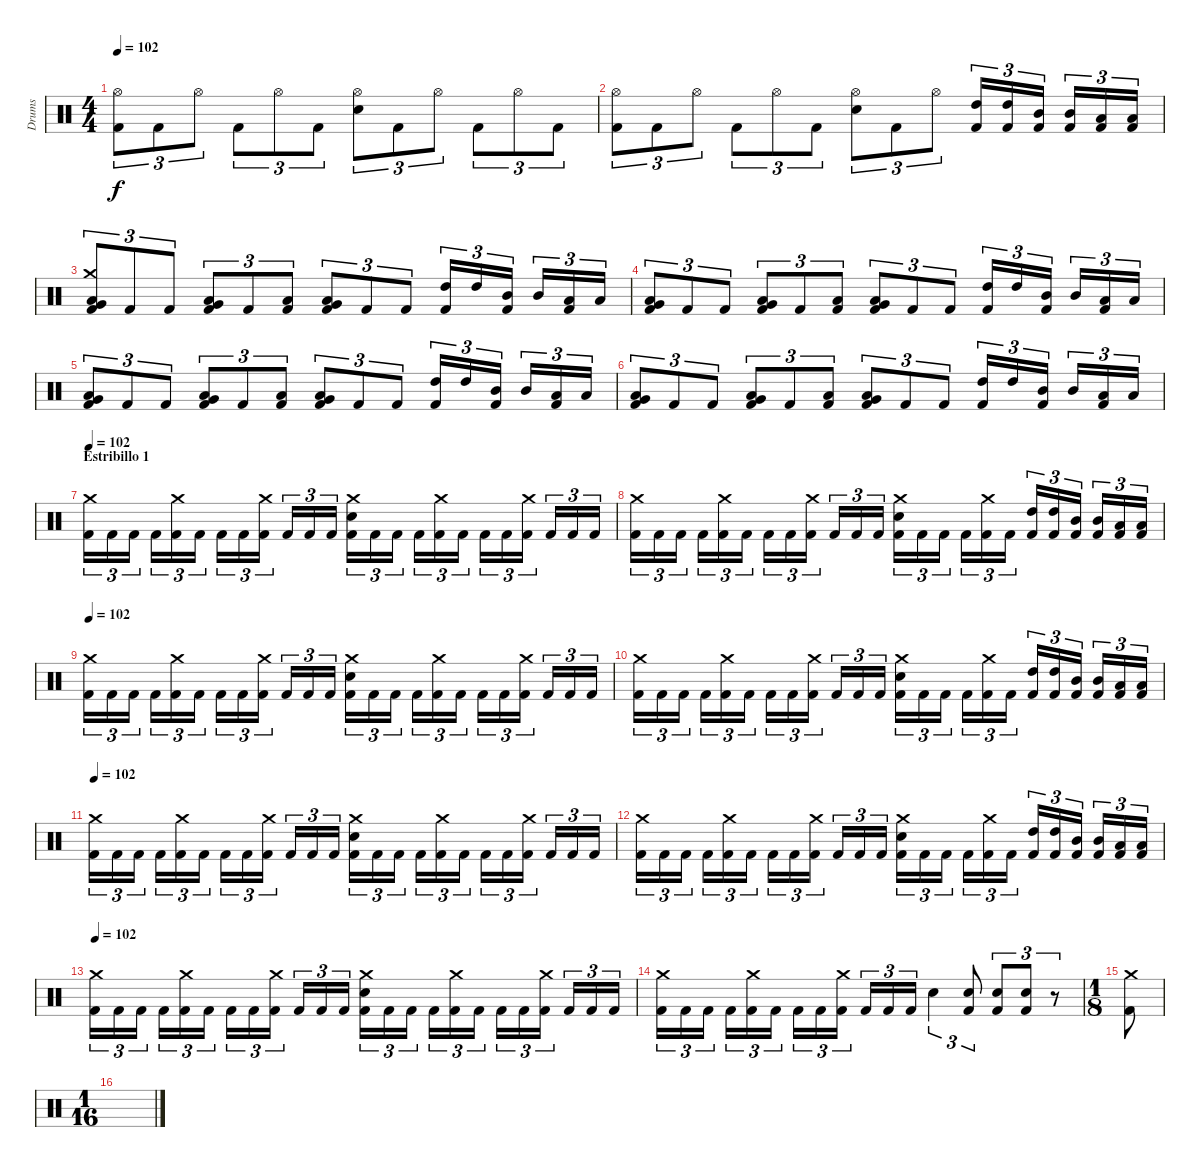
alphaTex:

\track ("Drums" "Drums") {instrument percussion}
\staff {score}
\articulation defaults
\ts (4 4)
\tempo 102
\clef neutral
\ks c
("Hi-Hat (open)" "Kick (hit) 2").8{tu (3 2) dy f} "Kick (hit) 2".8{tu (3 2)} "Hi-Hat (open)".8{tu (3 2)} "Kick (hit) 2".8{tu (3 2)} "Hi-Hat (open)".8{tu (3 2)} "Kick (hit) 2".8{tu (3 2)} ("Hi-Hat (open)" "Snare (hit) 2").8{tu (3 2)} "Kick (hit) 2".8{tu (3 2)} "Hi-Hat (open)".8{tu (3 2)} "Kick (hit) 2".8{tu (3 2)} "Hi-Hat (open)".8{tu (3 2)} "Kick (hit) 2".8{tu (3 2)} |
("Hi-Hat (open)" "Kick (hit) 2").8{tu (3 2)} "Kick (hit) 2".8{tu (3 2)} "Hi-Hat (open)".8{tu (3 2)} "Kick (hit) 2".8{tu (3 2)} "Hi-Hat (open)".8{tu (3 2)} "Kick (hit) 2".8{tu (3 2)} ("Hi-Hat (open)" "Snare (hit) 2").8{tu (3 2)} "Kick (hit) 2".8{tu (3 2)} "Hi-Hat (open)".8{tu (3 2)} ("High Tom (hit)" "Kick (hit) 2").16{tu (3 2)} ("High Tom (hit)" "Kick (hit) 2").16{tu (3 2)} ("Mid Tom (hit)" "Kick (hit) 2").16{tu (3 2)} ("Mid Tom (hit)" "Kick (hit) 2").16{tu (3 2)} ("Low Tom (hit)" "Kick (hit) 2").16{tu (3 2)} ("Low Tom (hit)" "Kick (hit) 2").16{tu (3 2)} |
("Crash medium (hit)" "Very Low Tom (hit)" "Low Floor Tom (hit)" "Kick (hit) 2").8{tu (3 2)} "Kick (hit) 2".8{tu (3 2)} "Kick (hit) 2".8{tu (3 2)} ("Very Low Tom (hit)" "Low Floor Tom (hit)" "Kick (hit) 2").8{tu (3 2)} "Kick (hit) 2".8{tu (3 2)} ("Low Floor Tom (hit)" "Kick (hit) 2").8{tu (3 2)} ("Very Low Tom (hit)" "Low Floor Tom (hit)" "Kick (hit) 2").8{tu (3 2)} "Kick (hit) 2".8{tu (3 2)} "Kick (hit) 2".8{tu (3 2)} ("High Tom (hit)" "Kick (hit) 2").16{tu (3 2)} "High Tom (hit)".16{tu (3 2)} ("Mid Tom (hit)" "Kick (hit) 2").16{tu (3 2)} "Mid Tom (hit)".16{tu (3 2)} ("Low Tom (hit)" "Kick (hit) 2").16{tu (3 2)} "Low Tom (hit)".16{tu (3 2)} |
("Very Low Tom (hit)" "Low Floor Tom (hit)" "Kick (hit) 2").8{tu (3 2)} "Kick (hit) 2".8{tu (3 2)} "Kick (hit) 2".8{tu (3 2)} ("Very Low Tom (hit)" "Low Floor Tom (hit)" "Kick (hit) 2").8{tu (3 2)} "Kick (hit) 2".8{tu (3 2)} ("Low Floor Tom (hit)" "Kick (hit) 2").8{tu (3 2)} ("Very Low Tom (hit)" "Low Floor Tom (hit)" "Kick (hit) 2").8{tu (3 2)} "Kick (hit) 2".8{tu (3 2)} "Kick (hit) 2".8{tu (3 2)} ("High Tom (hit)" "Kick (hit) 2").16{tu (3 2)} "High Tom (hit)".16{tu (3 2)} ("Mid Tom (hit)" "Kick (hit) 2").16{tu (3 2)} "Mid Tom (hit)".16{tu (3 2)} ("Low Tom (hit)" "Kick (hit) 2").16{tu (3 2)} "Low Tom (hit)".16{tu (3 2)} |
("Very Low Tom (hit)" "Low Floor Tom (hit)" "Kick (hit) 2").8{tu (3 2)} "Kick (hit) 2".8{tu (3 2)} "Kick (hit) 2".8{tu (3 2)} ("Very Low Tom (hit)" "Low Floor Tom (hit)" "Kick (hit) 2").8{tu (3 2)} "Kick (hit) 2".8{tu (3 2)} ("Low Floor Tom (hit)" "Kick (hit) 2").8{tu (3 2)} ("Very Low Tom (hit)" "Low Floor Tom (hit)" "Kick (hit) 2").8{tu (3 2)} "Kick (hit) 2".8{tu (3 2)} "Kick (hit) 2".8{tu (3 2)} ("High Tom (hit)" "Kick (hit) 2").16{tu (3 2)} "High Tom (hit)".16{tu (3 2)} ("Mid Tom (hit)" "Kick (hit) 2").16{tu (3 2)} "Mid Tom (hit)".16{tu (3 2)} ("Low Tom (hit)" "Kick (hit) 2").16{tu (3 2)} "Low Tom (hit)".16{tu (3 2)} |
("Very Low Tom (hit)" "Low Floor Tom (hit)" "Kick (hit) 2").8{tu (3 2)} "Kick (hit) 2".8{tu (3 2)} "Kick (hit) 2".8{tu (3 2)} ("Very Low Tom (hit)" "Low Floor Tom (hit)" "Kick (hit) 2").8{tu (3 2)} "Kick (hit) 2".8{tu (3 2)} ("Low Floor Tom (hit)" "Kick (hit) 2").8{tu (3 2)} ("Very Low Tom (hit)" "Low Floor Tom (hit)" "Kick (hit) 2").8{tu (3 2)} "Kick (hit) 2".8{tu (3 2)} "Kick (hit) 2".8{tu (3 2)} ("High Tom (hit)" "Kick (hit) 2").16{tu (3 2)} "High Tom (hit)".16{tu (3 2)} ("Mid Tom (hit)" "Kick (hit) 2").16{tu (3 2)} "Mid Tom (hit)".16{tu (3 2)} ("Low Tom (hit)" "Kick (hit) 2").16{tu (3 2)} "Low Tom (hit)".16{tu (3 2)} |
\section ("" "Estribillo 1")
\tempo 102
("Crash medium (hit)" "Kick (hit) 2").16{tu (3 2)} "Kick (hit) 2".16{tu (3 2)} "Kick (hit) 2".16{tu (3 2)} "Kick (hit) 2".16{tu (3 2)} ("Crash medium (hit)" "Kick (hit) 2").16{tu (3 2)} "Kick (hit) 2".16{tu (3 2)} "Kick (hit) 2".16{tu (3 2)} "Kick (hit) 2".16{tu (3 2)} ("Crash medium (hit)" "Kick (hit) 2").16{tu (3 2)} "Kick (hit) 2".16{tu (3 2)} "Kick (hit) 2".16{tu (3 2)} "Kick (hit) 2".16{tu (3 2)} ("Crash medium (hit)" "Snare (hit) 2" "Kick (hit) 2").16{tu (3 2)} "Kick (hit) 2".16{tu (3 2)} "Kick (hit) 2".16{tu (3 2)} "Kick (hit) 2".16{tu (3 2)} ("Crash medium (hit)" "Kick (hit) 2").16{tu (3 2)} "Kick (hit) 2".16{tu (3 2)} "Kick (hit) 2".16{tu (3 2)} "Kick (hit) 2".16{tu (3 2)} ("Crash medium (hit)" "Kick (hit) 2").16{tu (3 2)} "Kick (hit) 2".16{tu (3 2)} "Kick (hit) 2".16{tu (3 2)} "Kick (hit) 2".16{tu (3 2)} |
("Crash medium (hit)" "Kick (hit) 2").16{tu (3 2)} "Kick (hit) 2".16{tu (3 2)} "Kick (hit) 2".16{tu (3 2)} "Kick (hit) 2".16{tu (3 2)} ("Crash medium (hit)" "Kick (hit) 2").16{tu (3 2)} "Kick (hit) 2".16{tu (3 2)} "Kick (hit) 2".16{tu (3 2)} "Kick (hit) 2".16{tu (3 2)} ("Crash medium (hit)" "Kick (hit) 2").16{tu (3 2)} "Kick (hit) 2".16{tu (3 2)} "Kick (hit) 2".16{tu (3 2)} "Kick (hit) 2".16{tu (3 2)} ("Crash medium (hit)" "Snare (hit) 2" "Kick (hit) 2").16{tu (3 2)} "Kick (hit) 2".16{tu (3 2)} "Kick (hit) 2".16{tu (3 2)} "Kick (hit) 2".16{tu (3 2)} ("Crash medium (hit)" "Kick (hit) 2").16{tu (3 2)} "Kick (hit) 2".16{tu (3 2)} ("High Tom (hit)" "Kick (hit) 2").16{tu (3 2)} ("High Tom (hit)" "Kick (hit) 2").16{tu (3 2)} ("Mid Tom (hit)" "Kick (hit) 2").16{tu (3 2)} ("Mid Tom (hit)" "Kick (hit) 2").16{tu (3 2)} ("Low Tom (hit)" "Kick (hit) 2").16{tu (3 2)} ("Low Tom (hit)" "Kick (hit) 2").16{tu (3 2)} |
\tempo 102
("Crash medium (hit)" "Kick (hit) 2").16{tu (3 2)} "Kick (hit) 2".16{tu (3 2)} "Kick (hit) 2".16{tu (3 2)} "Kick (hit) 2".16{tu (3 2)} ("Crash medium (hit)" "Kick (hit) 2").16{tu (3 2)} "Kick (hit) 2".16{tu (3 2)} "Kick (hit) 2".16{tu (3 2)} "Kick (hit) 2".16{tu (3 2)} ("Crash medium (hit)" "Kick (hit) 2").16{tu (3 2)} "Kick (hit) 2".16{tu (3 2)} "Kick (hit) 2".16{tu (3 2)} "Kick (hit) 2".16{tu (3 2)} ("Crash medium (hit)" "Snare (hit) 2" "Kick (hit) 2").16{tu (3 2)} "Kick (hit) 2".16{tu (3 2)} "Kick (hit) 2".16{tu (3 2)} "Kick (hit) 2".16{tu (3 2)} ("Crash medium (hit)" "Kick (hit) 2").16{tu (3 2)} "Kick (hit) 2".16{tu (3 2)} "Kick (hit) 2".16{tu (3 2)} "Kick (hit) 2".16{tu (3 2)} ("Crash medium (hit)" "Kick (hit) 2").16{tu (3 2)} "Kick (hit) 2".16{tu (3 2)} "Kick (hit) 2".16{tu (3 2)} "Kick (hit) 2".16{tu (3 2)} |
("Crash medium (hit)" "Kick (hit) 2").16{tu (3 2)} "Kick (hit) 2".16{tu (3 2)} "Kick (hit) 2".16{tu (3 2)} "Kick (hit) 2".16{tu (3 2)} ("Crash medium (hit)" "Kick (hit) 2").16{tu (3 2)} "Kick (hit) 2".16{tu (3 2)} "Kick (hit) 2".16{tu (3 2)} "Kick (hit) 2".16{tu (3 2)} ("Crash medium (hit)" "Kick (hit) 2").16{tu (3 2)} "Kick (hit) 2".16{tu (3 2)} "Kick (hit) 2".16{tu (3 2)} "Kick (hit) 2".16{tu (3 2)} ("Crash medium (hit)" "Snare (hit) 2" "Kick (hit) 2").16{tu (3 2)} "Kick (hit) 2".16{tu (3 2)} "Kick (hit) 2".16{tu (3 2)} "Kick (hit) 2".16{tu (3 2)} ("Crash medium (hit)" "Kick (hit) 2").16{tu (3 2)} "Kick (hit) 2".16{tu (3 2)} ("High Tom (hit)" "Kick (hit) 2").16{tu (3 2)} ("High Tom (hit)" "Kick (hit) 2").16{tu (3 2)} ("Mid Tom (hit)" "Kick (hit) 2").16{tu (3 2)} ("Mid Tom (hit)" "Kick (hit) 2").16{tu (3 2)} ("Low Tom (hit)" "Kick (hit) 2").16{tu (3 2)} ("Low Tom (hit)" "Kick (hit) 2").16{tu (3 2)} |
\tempo 102
("Crash medium (hit)" "Kick (hit) 2").16{tu (3 2)} "Kick (hit) 2".16{tu (3 2)} "Kick (hit) 2".16{tu (3 2)} "Kick (hit) 2".16{tu (3 2)} ("Crash medium (hit)" "Kick (hit) 2").16{tu (3 2)} "Kick (hit) 2".16{tu (3 2)} "Kick (hit) 2".16{tu (3 2)} "Kick (hit) 2".16{tu (3 2)} ("Crash medium (hit)" "Kick (hit) 2").16{tu (3 2)} "Kick (hit) 2".16{tu (3 2)} "Kick (hit) 2".16{tu (3 2)} "Kick (hit) 2".16{tu (3 2)} ("Crash medium (hit)" "Snare (hit) 2" "Kick (hit) 2").16{tu (3 2)} "Kick (hit) 2".16{tu (3 2)} "Kick (hit) 2".16{tu (3 2)} "Kick (hit) 2".16{tu (3 2)} ("Crash medium (hit)" "Kick (hit) 2").16{tu (3 2)} "Kick (hit) 2".16{tu (3 2)} "Kick (hit) 2".16{tu (3 2)} "Kick (hit) 2".16{tu (3 2)} ("Crash medium (hit)" "Kick (hit) 2").16{tu (3 2)} "Kick (hit) 2".16{tu (3 2)} "Kick (hit) 2".16{tu (3 2)} "Kick (hit) 2".16{tu (3 2)} |
("Crash medium (hit)" "Kick (hit) 2").16{tu (3 2)} "Kick (hit) 2".16{tu (3 2)} "Kick (hit) 2".16{tu (3 2)} "Kick (hit) 2".16{tu (3 2)} ("Crash medium (hit)" "Kick (hit) 2").16{tu (3 2)} "Kick (hit) 2".16{tu (3 2)} "Kick (hit) 2".16{tu (3 2)} "Kick (hit) 2".16{tu (3 2)} ("Crash medium (hit)" "Kick (hit) 2").16{tu (3 2)} "Kick (hit) 2".16{tu (3 2)} "Kick (hit) 2".16{tu (3 2)} "Kick (hit) 2".16{tu (3 2)} ("Crash medium (hit)" "Snare (hit) 2" "Kick (hit) 2").16{tu (3 2)} "Kick (hit) 2".16{tu (3 2)} "Kick (hit) 2".16{tu (3 2)} "Kick (hit) 2".16{tu (3 2)} ("Crash medium (hit)" "Kick (hit) 2").16{tu (3 2)} "Kick (hit) 2".16{tu (3 2)} ("High Tom (hit)" "Kick (hit) 2").16{tu (3 2)} ("High Tom (hit)" "Kick (hit) 2").16{tu (3 2)} ("Mid Tom (hit)" "Kick (hit) 2").16{tu (3 2)} ("Mid Tom (hit)" "Kick (hit) 2").16{tu (3 2)} ("Low Tom (hit)" "Kick (hit) 2").16{tu (3 2)} ("Low Tom (hit)" "Kick (hit) 2").16{tu (3 2)} |
\tempo 102
("Crash medium (hit)" "Kick (hit) 2").16{tu (3 2)} "Kick (hit) 2".16{tu (3 2)} "Kick (hit) 2".16{tu (3 2)} "Kick (hit) 2".16{tu (3 2)} ("Crash medium (hit)" "Kick (hit) 2").16{tu (3 2)} "Kick (hit) 2".16{tu (3 2)} "Kick (hit) 2".16{tu (3 2)} "Kick (hit) 2".16{tu (3 2)} ("Crash medium (hit)" "Kick (hit) 2").16{tu (3 2)} "Kick (hit) 2".16{tu (3 2)} "Kick (hit) 2".16{tu (3 2)} "Kick (hit) 2".16{tu (3 2)} ("Crash medium (hit)" "Snare (hit) 2" "Kick (hit) 2").16{tu (3 2)} "Kick (hit) 2".16{tu (3 2)} "Kick (hit) 2".16{tu (3 2)} "Kick (hit) 2".16{tu (3 2)} ("Crash medium (hit)" "Kick (hit) 2").16{tu (3 2)} "Kick (hit) 2".16{tu (3 2)} "Kick (hit) 2".16{tu (3 2)} "Kick (hit) 2".16{tu (3 2)} ("Crash medium (hit)" "Kick (hit) 2").16{tu (3 2)} "Kick (hit) 2".16{tu (3 2)} "Kick (hit) 2".16{tu (3 2)} "Kick (hit) 2".16{tu (3 2)} |
("Crash medium (hit)" "Kick (hit) 2").16{tu (3 2)} "Kick (hit) 2".16{tu (3 2)} "Kick (hit) 2".16{tu (3 2)} "Kick (hit) 2".16{tu (3 2)} ("Crash medium (hit)" "Kick (hit) 2").16{tu (3 2)} "Kick (hit) 2".16{tu (3 2)} "Kick (hit) 2".16{tu (3 2)} "Kick (hit) 2".16{tu (3 2)} ("Crash medium (hit)" "Kick (hit) 2").16{tu (3 2)} "Kick (hit) 2".16{tu (3 2)} "Kick (hit) 2".16{tu (3 2)} "Kick (hit) 2".16{tu (3 2)} "Snare (hit) 2".4{tu (3 2)} ("Snare (hit) 2" "Kick (hit) 2").8{tu (3 2)} ("Snare (hit) 2" "Kick (hit) 2").8{tu (3 2)} ("Snare (hit) 2" "Kick (hit) 2").8{tu (3 2)} r.8{tu (3 2)} |
\ts (1 8)
("Crash medium (hit)" "Kick (hit) 2").8 |
\ts (1 16)
